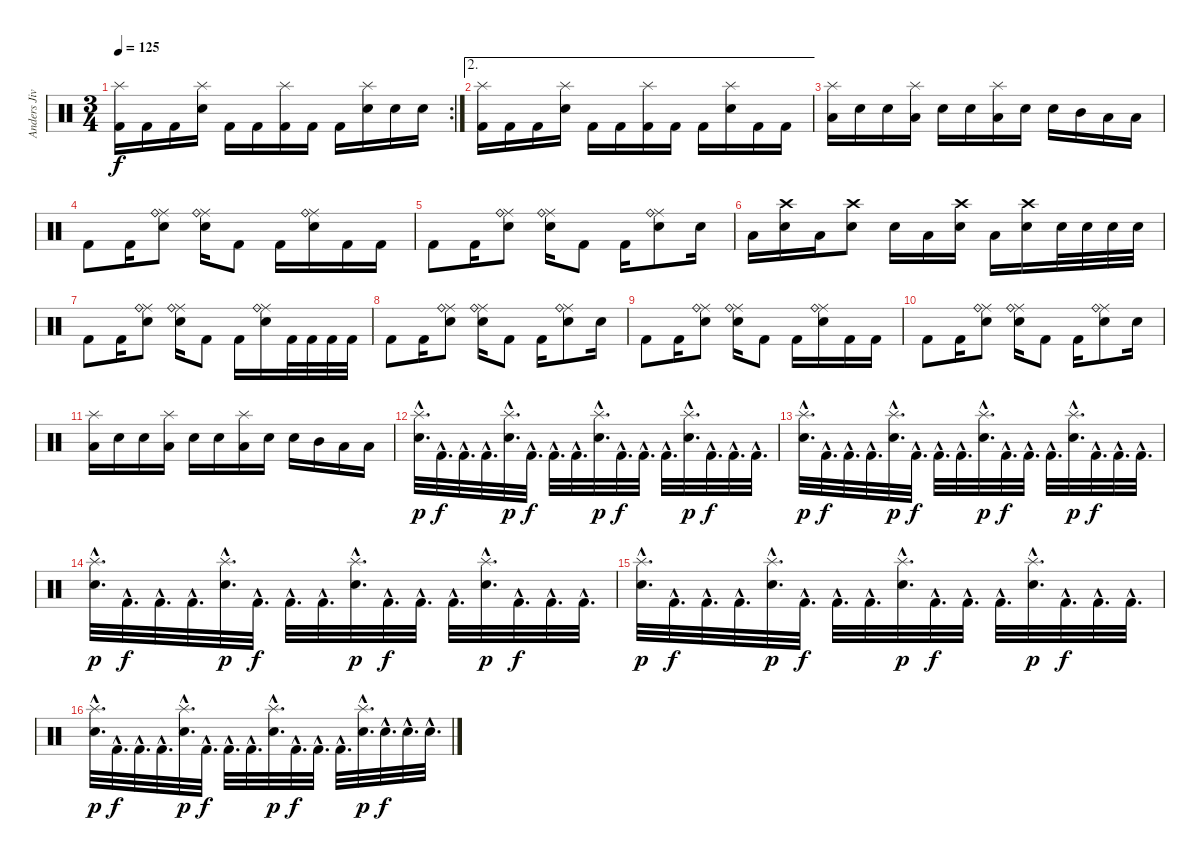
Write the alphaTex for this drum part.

\track ("Anders Jivarp" "Anders Jiv") {instrument percussion}
\staff {score}
\articulation defaults
\rc 2
\ts (3 4)
\tempo 125
\clef neutral
\ks c
("Splash (hit)" "Kick (hit) 2").16{dy f} "Kick (hit) 2".16 "Kick (hit) 2".16 ("Splash (hit)" "Electric Snare (hit)").16 "Kick (hit) 2".16 "Kick (hit) 2".16 ("Splash (hit)" "Kick (hit) 2").16 "Kick (hit) 2".16 "Kick (hit) 2".16 ("Splash (hit)" "Electric Snare (hit)").16 "Electric Snare (hit)".16 "Electric Snare (hit)".16 |
\ae 2
("Splash (hit)" "Kick (hit) 2").16 "Kick (hit) 2".16 "Kick (hit) 2".16 ("Splash (hit)" "Electric Snare (hit)").16 "Kick (hit) 2".16 "Kick (hit) 2".16 ("Splash (hit)" "Kick (hit) 2").16 "Kick (hit) 2".16 "Kick (hit) 2".16 ("Splash (hit)" "Electric Snare (hit)").16 "Kick (hit) 2".16 "Kick (hit) 2".16 |
("Splash (hit)" "Low Floor Tom (hit)").16 "Electric Snare (hit)".16 "Electric Snare (hit)".16 ("Splash (hit)" "Low Floor Tom (hit)").16 "Electric Snare (hit)".16 "Electric Snare (hit)".16 ("Splash (hit)" "Low Floor Tom (hit)").16 "Electric Snare (hit)".16 "Electric Snare (hit)".16 "Mid Tom (hit)".16 "Low Tom (hit)".16 "Low Floor Tom (hit)".16 |
"Kick (hit) 2".8 "Kick (hit) 2".16 ("Ride (middle)" "Ride (bell)" "Electric Snare (hit)").8 ("Ride (middle)" "Ride (bell)" "Electric Snare (hit)").16 "Kick (hit) 2".8 "Kick (hit) 2".16 ("Ride (middle)" "Ride (bell)" "Electric Snare (hit)").16 "Kick (hit) 2".16 "Kick (hit) 2".16 |
"Kick (hit) 2".8 "Kick (hit) 2".16 ("Ride (middle)" "Ride (bell)" "Electric Snare (hit)").8 ("Ride (middle)" "Ride (bell)" "Electric Snare (hit)").16 "Kick (hit) 2".8 "Kick (hit) 2".16 ("Ride (middle)" "Ride (bell)" "Electric Snare (hit)").8 "Electric Snare (hit)".16 |
"Low Floor Tom (hit)".16 ("Crash high (hit)" "Electric Snare (hit)").16 "Low Floor Tom (hit)".16 ("Crash high (hit)" "Electric Snare (hit)").8 "Electric Snare (hit)".16 "Low Floor Tom (hit)".16 ("Crash high (hit)" "Electric Snare (hit)").16 "Low Floor Tom (hit)".16 ("Crash high (hit)" "Electric Snare (hit)").16 "Electric Snare (hit)".32 "Electric Snare (hit)".32 "Electric Snare (hit)".32 "Electric Snare (hit)".32 |
"Kick (hit) 2".8 "Kick (hit) 2".16 ("Ride (middle)" "Ride (bell)" "Electric Snare (hit)").8 ("Ride (middle)" "Ride (bell)" "Electric Snare (hit)").16 "Kick (hit) 2".8 "Kick (hit) 2".16 ("Ride (middle)" "Ride (bell)" "Electric Snare (hit)").16 "Kick (hit) 2".32 "Kick (hit) 2".32 "Kick (hit) 2".32 "Kick (hit) 2".32 |
"Kick (hit) 2".8 "Kick (hit) 2".16 ("Ride (middle)" "Ride (bell)" "Electric Snare (hit)").8 ("Ride (middle)" "Ride (bell)" "Electric Snare (hit)").16 "Kick (hit) 2".8 "Kick (hit) 2".16 ("Ride (middle)" "Ride (bell)" "Electric Snare (hit)").8 "Electric Snare (hit)".16 |
"Kick (hit) 2".8 "Kick (hit) 2".16 ("Ride (middle)" "Ride (bell)" "Electric Snare (hit)").8 ("Ride (middle)" "Ride (bell)" "Electric Snare (hit)").16 "Kick (hit) 2".8 "Kick (hit) 2".16 ("Ride (middle)" "Ride (bell)" "Electric Snare (hit)").16 "Kick (hit) 2".16 "Kick (hit) 2".16 |
"Kick (hit) 2".8 "Kick (hit) 2".16 ("Ride (middle)" "Ride (bell)" "Electric Snare (hit)").8 ("Ride (middle)" "Ride (bell)" "Electric Snare (hit)").16 "Kick (hit) 2".8 "Kick (hit) 2".16 ("Ride (middle)" "Ride (bell)" "Electric Snare (hit)").8 "Electric Snare (hit)".16 |
("Splash (hit)" "Low Floor Tom (hit)").16 "Electric Snare (hit)".16 "Electric Snare (hit)".16 ("Splash (hit)" "Low Floor Tom (hit)").16 "Electric Snare (hit)".16 "Electric Snare (hit)".16 ("Splash (hit)" "Low Floor Tom (hit)").16 "Electric Snare (hit)".16 "Electric Snare (hit)".16 "Mid Tom (hit)".16 "Low Tom (hit)".16 "Low Floor Tom (hit)".16 |
("Splash (hit)"{hac} "Electric Snare (hit)"{hac}).32{d dy p} "Kick (hit) 2"{hac}.32{d dy f} "Kick (hit) 2"{hac}.32{d} "Kick (hit) 2"{hac}.32{d} ("Splash (hit)"{hac} "Electric Snare (hit)"{hac}).32{d dy p} "Kick (hit) 2"{hac}.32{d dy f} "Kick (hit) 2"{hac}.32{d} "Kick (hit) 2"{hac}.32{d} ("Splash (hit)"{hac} "Electric Snare (hit)"{hac}).32{d dy p} "Kick (hit) 2"{hac}.32{d dy f} "Kick (hit) 2"{hac}.32{d} "Kick (hit) 2"{hac}.32{d} ("Splash (hit)"{hac} "Electric Snare (hit)"{hac}).32{d dy p} "Kick (hit) 2"{hac}.32{d dy f} "Kick (hit) 2"{hac}.32{d} "Kick (hit) 2"{hac}.32{d} |
("Splash (hit)"{hac} "Electric Snare (hit)"{hac}).32{d dy p} "Kick (hit) 2"{hac}.32{d dy f} "Kick (hit) 2"{hac}.32{d} "Kick (hit) 2"{hac}.32{d} ("Splash (hit)"{hac} "Electric Snare (hit)"{hac}).32{d dy p} "Kick (hit) 2"{hac}.32{d dy f} "Kick (hit) 2"{hac}.32{d} "Kick (hit) 2"{hac}.32{d} ("Splash (hit)"{hac} "Electric Snare (hit)"{hac}).32{d dy p} "Kick (hit) 2"{hac}.32{d dy f} "Kick (hit) 2"{hac}.32{d} "Kick (hit) 2"{hac}.32{d} ("Splash (hit)"{hac} "Electric Snare (hit)"{hac}).32{d dy p} "Kick (hit) 2"{hac}.32{d dy f} "Kick (hit) 2"{hac}.32{d} "Kick (hit) 2"{hac}.32{d} |
("Splash (hit)"{hac} "Electric Snare (hit)"{hac}).32{d dy p} "Kick (hit) 2"{hac}.32{d dy f} "Kick (hit) 2"{hac}.32{d} "Kick (hit) 2"{hac}.32{d} ("Splash (hit)"{hac} "Electric Snare (hit)"{hac}).32{d dy p} "Kick (hit) 2"{hac}.32{d dy f} "Kick (hit) 2"{hac}.32{d} "Kick (hit) 2"{hac}.32{d} ("Splash (hit)"{hac} "Electric Snare (hit)"{hac}).32{d dy p} "Kick (hit) 2"{hac}.32{d dy f} "Kick (hit) 2"{hac}.32{d} "Kick (hit) 2"{hac}.32{d} ("Splash (hit)"{hac} "Electric Snare (hit)"{hac}).32{d dy p} "Kick (hit) 2"{hac}.32{d dy f} "Kick (hit) 2"{hac}.32{d} "Kick (hit) 2"{hac}.32{d} |
("Splash (hit)"{hac} "Electric Snare (hit)"{hac}).32{d dy p} "Kick (hit) 2"{hac}.32{d dy f} "Kick (hit) 2"{hac}.32{d} "Kick (hit) 2"{hac}.32{d} ("Splash (hit)"{hac} "Electric Snare (hit)"{hac}).32{d dy p} "Kick (hit) 2"{hac}.32{d dy f} "Kick (hit) 2"{hac}.32{d} "Kick (hit) 2"{hac}.32{d} ("Splash (hit)"{hac} "Electric Snare (hit)"{hac}).32{d dy p} "Kick (hit) 2"{hac}.32{d dy f} "Kick (hit) 2"{hac}.32{d} "Kick (hit) 2"{hac}.32{d} ("Splash (hit)"{hac} "Electric Snare (hit)"{hac}).32{d dy p} "Kick (hit) 2"{hac}.32{d dy f} "Kick (hit) 2"{hac}.32{d} "Kick (hit) 2"{hac}.32{d} |
("Splash (hit)"{hac} "Electric Snare (hit)"{hac}).32{d dy p} "Kick (hit) 2"{hac}.32{d dy f} "Kick (hit) 2"{hac}.32{d} "Kick (hit) 2"{hac}.32{d} ("Splash (hit)"{hac} "Electric Snare (hit)"{hac}).32{d dy p} "Kick (hit) 2"{hac}.32{d dy f} "Kick (hit) 2"{hac}.32{d} "Kick (hit) 2"{hac}.32{d} ("Splash (hit)"{hac} "Electric Snare (hit)"{hac}).32{d dy p} "Kick (hit) 2"{hac}.32{d dy f} "Kick (hit) 2"{hac}.32{d} "Kick (hit) 2"{hac}.32{d} ("Splash (hit)"{hac} "Electric Snare (hit)"{hac}).32{d dy p} "Electric Snare (hit)"{hac}.32{d dy f} "Electric Snare (hit)"{hac}.32{d} "Electric Snare (hit)"{hac}.32{d}
